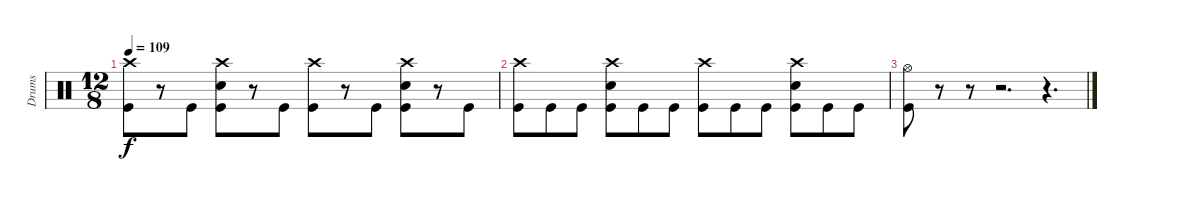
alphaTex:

\track ("Drums" "Drums") {instrument percussion}
\staff {score}
\articulation defaults
\ts (12 8)
\tempo 109
\clef neutral
\ks c
("Crash high (hit)" "Kick (hit)").8{dy f} r.8 "Kick (hit)".8 ("Crash high (hit)" "Snare (hit) 2" "Kick (hit)").8 r.8 "Kick (hit)".8 ("Crash high (hit)" "Kick (hit)").8 r.8 "Kick (hit)".8 ("Crash high (hit)" "Snare (hit) 2" "Kick (hit)").8 r.8 "Kick (hit)".8 |
("Crash high (hit)" "Kick (hit)").8 "Kick (hit)".8 "Kick (hit)".8 ("Crash high (hit)" "Snare (hit) 2" "Kick (hit)").8 "Kick (hit)".8 "Kick (hit)".8 ("Crash high (hit)" "Kick (hit)").8 "Kick (hit)".8 "Kick (hit)".8 ("Crash high (hit)" "Snare (hit) 2" "Kick (hit)").8 "Kick (hit)".8 "Kick (hit)".8 |
("Hi-Hat (open)" "Kick (hit)").8 r.8 r.8 r.2{d} r.4{d}
